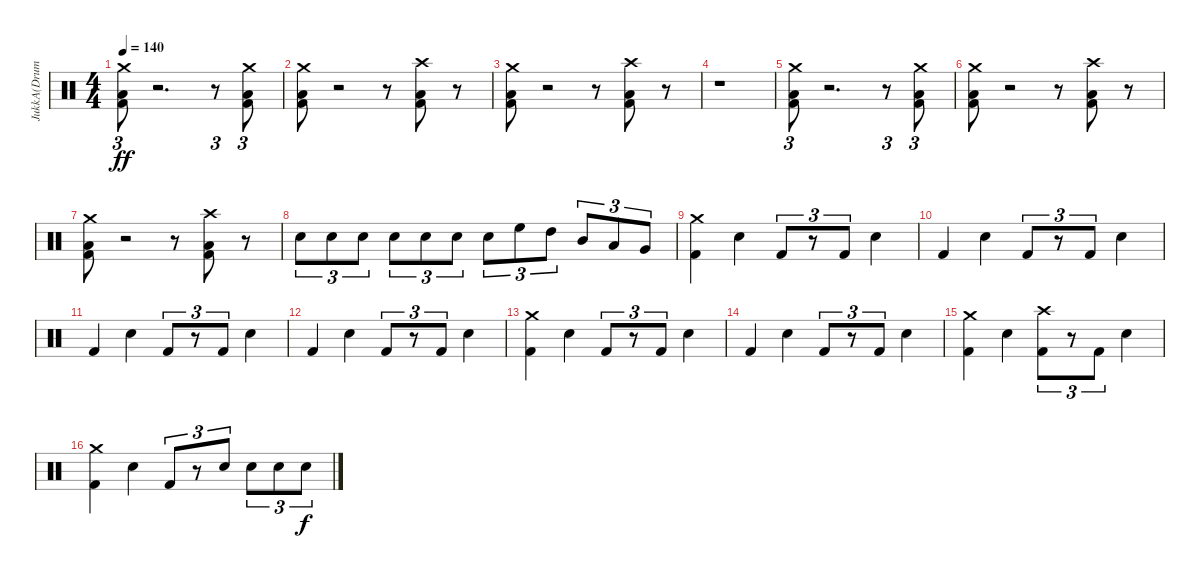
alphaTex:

\track ("JukkA(Drums)" "JukkA(Drum") {instrument percussion}
\staff {score}
\articulation defaults
\ts (4 4)
\tempo 140
\clef neutral
\ks c
("Kick (hit) 2" "Low Floor Tom (hit)" "Crash medium (hit)").8{tu (3 2) dy ff} r.2{d} r.8{tu (3 2)} ("Kick (hit) 2" "Low Floor Tom (hit)" "Crash medium (hit)").8{tu (3 2)} |
("Kick (hit) 2" "Low Floor Tom (hit)" "Crash medium (hit)").8 r.2 r.8 ("Kick (hit) 2" "Low Floor Tom (hit)" "Crash high (hit)").8 r.8 |
("Kick (hit) 2" "Low Floor Tom (hit)" "Crash medium (hit)").8 r.2 r.8 ("Kick (hit) 2" "Low Floor Tom (hit)" "Crash high (hit)").8 r.8 |
r.1 |
("Kick (hit) 2" "Low Floor Tom (hit)" "Crash medium (hit)").8{tu (3 2)} r.2{d} r.8{tu (3 2)} ("Kick (hit) 2" "Low Floor Tom (hit)" "Crash medium (hit)").8{tu (3 2)} |
("Kick (hit) 2" "Low Floor Tom (hit)" "Crash medium (hit)").8 r.2 r.8 ("Kick (hit) 2" "Low Floor Tom (hit)" "Crash high (hit)").8 r.8 |
("Kick (hit) 2" "Low Floor Tom (hit)" "Crash medium (hit)").8 r.2 r.8 ("Kick (hit) 2" "Low Floor Tom (hit)" "Crash high (hit)").8 r.8 |
"Snare (hit) 2".8{tu (3 2)} "Snare (hit) 2".8{tu (3 2)} "Snare (hit) 2".8{tu (3 2)} "Snare (hit) 2".8{tu (3 2)} "Snare (hit) 2".8{tu (3 2)} "Snare (hit) 2".8{tu (3 2)} "Snare (hit) 2".8{tu (3 2)} "High Floor Tom (hit)".8{tu (3 2)} "High Tom (hit)".8{tu (3 2)} "Mid Tom (hit)".8{tu (3 2)} "Low Tom (hit)".8{tu (3 2)} "Very Low Tom (hit)".8{tu (3 2)} |
("Kick (hit) 2" "Crash medium (hit)").4 "Snare (hit) 2".4 "Kick (hit) 2".8{tu (3 2)} r.8{tu (3 2)} "Kick (hit) 2".8{tu (3 2)} "Snare (hit) 2".4 |
"Kick (hit) 2".4 "Snare (hit) 2".4 "Kick (hit) 2".8{tu (3 2)} r.8{tu (3 2)} "Kick (hit) 2".8{tu (3 2)} "Snare (hit) 2".4 |
"Kick (hit) 2".4 "Snare (hit) 2".4 "Kick (hit) 2".8{tu (3 2)} r.8{tu (3 2)} "Kick (hit) 2".8{tu (3 2)} "Snare (hit) 2".4 |
"Kick (hit) 2".4 "Snare (hit) 2".4 "Kick (hit) 2".8{tu (3 2)} r.8{tu (3 2)} "Kick (hit) 2".8{tu (3 2)} "Snare (hit) 2".4 |
("Kick (hit) 2" "Crash medium (hit)").4 "Snare (hit) 2".4 "Kick (hit) 2".8{tu (3 2)} r.8{tu (3 2)} "Kick (hit) 2".8{tu (3 2)} "Snare (hit) 2".4 |
"Kick (hit) 2".4 "Snare (hit) 2".4 "Kick (hit) 2".8{tu (3 2)} r.8{tu (3 2)} "Kick (hit) 2".8{tu (3 2)} "Snare (hit) 2".4 |
("Kick (hit) 2" "Crash medium (hit)").4 "Snare (hit) 2".4 ("Kick (hit) 2" "Crash high (hit)").8{tu (3 2)} r.8{tu (3 2)} "Kick (hit) 2".8{tu (3 2)} "Snare (hit) 2".4 |
("Kick (hit) 2" "Crash medium (hit)").4 "Snare (hit) 2".4 "Kick (hit) 2".8{tu (3 2)} r.8{tu (3 2)} "Snare (hit) 2".8{tu (3 2)} "Snare (hit) 2".8{tu (3 2)} "Snare (hit) 2".8{tu (3 2)} "Snare (hit) 2".8{tu (3 2) dy f}
